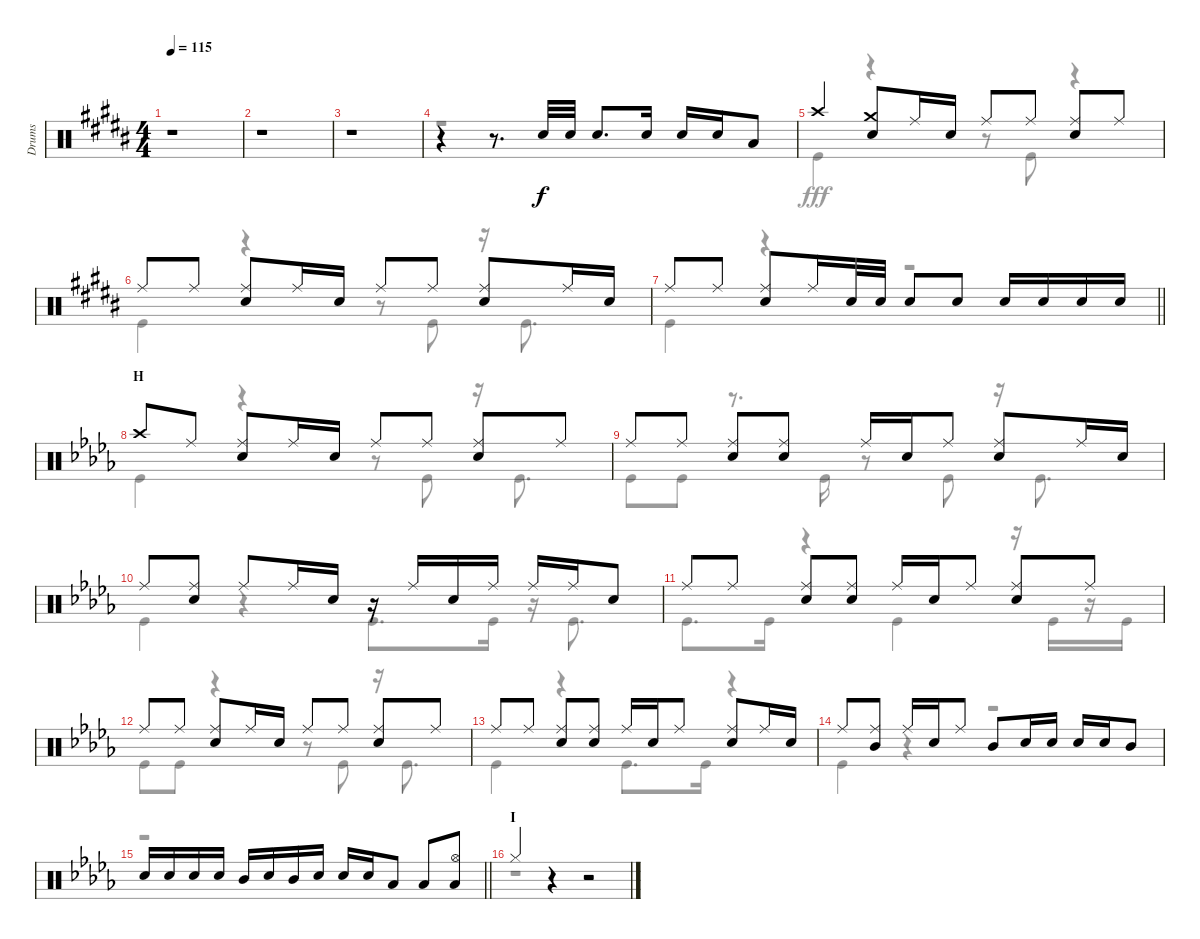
\track ("Drums" "Drums") {instrument percussion}
\staff {score}
\articulation defaults
\voice
\ts (4 4)
\tempo 115
\clef neutral
\ks b
r.1{dy f} |
r.1 |
r.1 |
r.4 r.8{d} "Snare (hit) 2".32 "Snare (hit) 2".32 "Snare (hit) 2".8{d} "Snare (hit) 2".16 "Snare (hit) 2".16 "Snare (hit) 2".16 "Low Tom (hit)".8 |
"Crash high (hit)".4 ("Crash medium (hit)" "Snare (hit) 2").8 "Ride (middle)".16 "Snare (hit) 2".16 "Ride (middle)".8 "Ride (middle)".8 ("Ride (middle)" "Snare (hit) 2").8 "Ride (middle)".8 |
"Ride (middle)".8 "Ride (middle)".8 ("Ride (middle)" "Snare (hit) 2").8 "Ride (middle)".16 "Snare (hit) 2".16 "Ride (middle)".8 "Ride (middle)".8 ("Ride (middle)" "Snare (hit) 2").8 "Ride (middle)".16 "Snare (hit) 2".16 |
\barLineRight lightlight "Ride (middle)".8 "Ride (middle)".8
("Ride (middle)" "Snare (hit) 2").8 "Ride (middle)".16 "Snare (hit) 2".32 "Snare (hit) 2".32 "Snare (hit) 2".8 "Snare (hit) 2".8 "Snare (hit) 2".16 "Snare (hit) 2".16 "Snare (hit) 2".16 "Snare (hit) 2".16 |
\section ("" "H")
\ks db "Crash high (hit)".8 "Ride (middle)".8
("Ride (middle)" "Snare (hit) 2").8 "Ride (middle)".16 "Snare (hit) 2".16 "Ride (middle)".8 "Ride (middle)".8 ("Ride (middle)" "Snare (hit) 2").8 "Ride (middle)".8 |
"Ride (middle)".8 "Ride (middle)".8 ("Ride (middle)" "Snare (hit) 2").8 ("Ride (middle)" "Snare (hit) 2").8 "Ride (middle)".16 "Snare (hit) 2".16 "Ride (middle)".8 ("Ride (middle)" "Snare (hit) 2").8 "Ride (middle)".16 "Snare (hit) 2".16 |
"Ride (middle)".8 ("Ride (middle)" "Snare (hit) 2").8 "Ride (middle)".8 "Ride (middle)".16 "Snare (hit) 2".16 r.16 "Ride (middle)".16 "Snare (hit) 2".16 "Ride (middle)".16 "Ride (middle)".16 "Ride (middle)".16 "Snare (hit) 2".8 |
"Ride (middle)".8 "Ride (middle)".8 ("Ride (middle)" "Snare (hit) 2").8 ("Ride (middle)" "Snare (hit) 2").8 "Ride (middle)".16 "Snare (hit) 2".16 "Ride (middle)".8 ("Ride (middle)" "Snare (hit) 2").8 "Ride (middle)".8 |
"Ride (middle)".8 "Ride (middle)".8 ("Ride (middle)" "Snare (hit) 2").8 "Ride (middle)".16 "Snare (hit) 2".16 "Ride (middle)".8 "Ride (middle)".8 ("Ride (middle)" "Snare (hit) 2").8 "Ride (middle)".8 |
"Ride (middle)".8 "Ride (middle)".8 ("Ride (middle)" "Snare (hit) 2").8 ("Ride (middle)" "Snare (hit) 2").8 "Ride (middle)".16 "Snare (hit) 2".16 "Ride (middle)".8 ("Ride (middle)" "Snare (hit) 2").8 "Ride (middle)".16 "Snare (hit) 2".16 |
"Ride (middle)".8 ("Ride (middle)" "Mid Tom (hit)").8 "Ride (middle)".16 "Snare (hit) 2".16 "Ride (middle)".8 "Mid Tom (hit)".8 "Snare (hit) 2".16 "Snare (hit) 2".16 "Snare (hit) 2".16 "Snare (hit) 2".16 "Mid Tom (hit)".8 |
\barLineRight lightlight "Snare (hit) 2".16 "Snare (hit) 2".16 "Snare (hit) 2".16 "Snare (hit) 2".16 "Mid Tom (hit)".16 "Snare (hit) 2".16 "Mid Tom (hit)".16 "Snare (hit) 2".16 "Snare (hit) 2".16 "Snare (hit) 2".16 "Low Tom (hit)".8 "Low Tom (hit)".8
("Hi-Hat (open)" "Low Tom (hit)").8 |
\section ("" "I")
"Hi-Hat (closed)".4 r.4 r.2
\voice
\clef neutral
\ottava regular
\simile none
\ks b
r.1{dy fff} |
r.1 |
r.1 |
r.1 |
"Kick (hit)".4 r.4 r.8 "Kick (hit)".8 r.4 |
"Kick (hit)".4 r.4 r.8 "Kick (hit)".8 r.16 "Kick (hit)".8{d} |
\barLineRight lightlight "Kick (hit)".4
r.4 r.2 |
\ks db "Kick (hit)".4
r.4 r.8 "Kick (hit)".8 r.16 "Kick (hit)".8{d} |
"Kick (hit)".8 "Kick (hit)".8 r.8{d} "Kick (hit)".16 r.8 "Kick (hit)".8 r.16 "Kick (hit)".8{d} |
"Kick (hit)".4 r.4 "Kick (hit)".8{d} "Kick (hit)".16 r.16 "Kick (hit)".8{d} |
"Kick (hit)".8{d} "Kick (hit)".16 r.4 "Kick (hit)".4 r.16 "Kick (hit)".16 r.16 "Kick (hit)".16 |
"Kick (hit)".8 "Kick (hit)".8 r.4 r.8 "Kick (hit)".8 r.16 "Kick (hit)".8{d} |
"Kick (hit)".4 r.4 "Kick (hit)".8{d} "Kick (hit)".16 r.4 |
"Kick (hit)".4 r.4 r.2 |
\barLineRight lightlight
r.1 |
r.1
